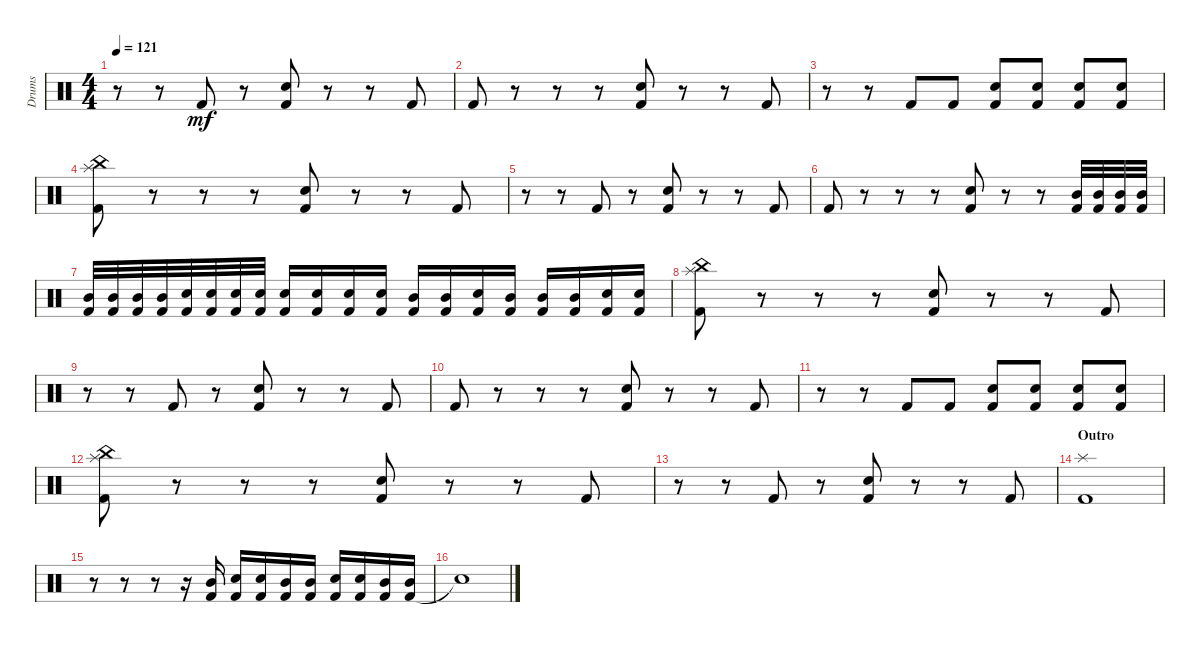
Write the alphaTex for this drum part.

\track ("Drums" "Drums") {instrument percussion}
\staff {score}
\articulation defaults
\ts (4 4)
\tempo 121
\clef neutral
\ks c
r.8{dy mf} r.8 "Kick (hit) 2".8 r.8 ("Kick (hit) 2" "Snare (hit) 2").8 r.8 r.8 "Kick (hit) 2".8 |
"Kick (hit) 2".8 r.8 r.8 r.8 ("Kick (hit) 2" "Snare (hit) 2").8 r.8 r.8 "Kick (hit) 2".8 |
r.8 r.8 "Kick (hit) 2".8 "Kick (hit) 2".8 ("Kick (hit) 2" "Snare (hit) 2").8 ("Kick (hit) 2" "Snare (hit) 2").8 ("Kick (hit) 2" "Snare (hit) 2").8 ("Kick (hit) 2" "Snare (hit) 2").8 |
("Kick (hit) 2" "Splash (hit)" "China (hit)").8 r.8 r.8 r.8 ("Kick (hit) 2" "Snare (hit) 2").8 r.8 r.8 "Kick (hit) 2".8 |
r.8 r.8 "Kick (hit) 2".8 r.8 ("Kick (hit) 2" "Snare (hit) 2").8 r.8 r.8 "Kick (hit) 2".8 |
"Kick (hit) 2".8 r.8 r.8 r.8 ("Kick (hit) 2" "Snare (hit) 2").8 r.8 r.8 ("Kick (hit) 2" "Mid Tom (hit)").32 ("Kick (hit) 2" "Mid Tom (hit)").32 ("Kick (hit) 2" "Mid Tom (hit)").32 ("Kick (hit) 2" "Mid Tom (hit)").32 |
("Kick (hit) 2" "Mid Tom (hit)").32 ("Kick (hit) 2" "Mid Tom (hit)").32 ("Kick (hit) 2" "Mid Tom (hit)").32 ("Kick (hit) 2" "Mid Tom (hit)").32 ("Kick (hit) 2" "Snare (hit) 2").32 ("Kick (hit) 2" "Snare (hit) 2").32 ("Kick (hit) 2" "Snare (hit) 2").32 ("Kick (hit) 2" "Snare (hit) 2").32 ("Kick (hit) 2" "Snare (hit) 2").16 ("Kick (hit) 2" "Snare (hit) 2").16 ("Kick (hit) 2" "Snare (hit) 2").16 ("Kick (hit) 2" "Snare (hit) 2").16 ("Kick (hit) 2" "Mid Tom (hit)").16 ("Kick (hit) 2" "Mid Tom (hit)").16 ("Kick (hit) 2" "Snare (hit) 2").16 ("Kick (hit) 2" "Mid Tom (hit)").16 ("Kick (hit) 2" "Mid Tom (hit)").16 ("Kick (hit) 2" "Mid Tom (hit)").16 ("Kick (hit) 2" "Snare (hit) 2").16 ("Kick (hit) 2" "Snare (hit) 2").16 |
("Kick (hit) 2" "Splash (hit)" "China (hit)").8 r.8 r.8 r.8 ("Kick (hit) 2" "Snare (hit) 2").8 r.8 r.8 "Kick (hit) 2".8 |
r.8 r.8 "Kick (hit) 2".8 r.8 ("Kick (hit) 2" "Snare (hit) 2").8 r.8 r.8 "Kick (hit) 2".8 |
"Kick (hit) 2".8 r.8 r.8 r.8 ("Kick (hit) 2" "Snare (hit) 2").8 r.8 r.8 "Kick (hit) 2".8 |
r.8 r.8 "Kick (hit) 2".8 "Kick (hit) 2".8 ("Kick (hit) 2" "Snare (hit) 2").8 ("Kick (hit) 2" "Snare (hit) 2").8 ("Kick (hit) 2" "Snare (hit) 2").8 ("Kick (hit) 2" "Snare (hit) 2").8 |
("Kick (hit) 2" "Splash (hit)" "China (hit)").8 r.8 r.8 r.8 ("Kick (hit) 2" "Snare (hit) 2").8 r.8 r.8 "Kick (hit) 2".8 |
r.8 r.8 "Kick (hit) 2".8 r.8 ("Kick (hit) 2" "Snare (hit) 2").8 r.8 r.8 "Kick (hit) 2".8 |
\section ("" "Outro")
("Kick (hit) 2" "Splash (hit)").1 |
r.8 r.8 r.8 r.16 ("Kick (hit) 2" "Mid Tom (hit)").16 ("Kick (hit) 2" "Snare (hit) 2").16 ("Kick (hit) 2" "Snare (hit) 2").16 ("Kick (hit) 2" "Mid Tom (hit)").16 ("Kick (hit) 2" "Mid Tom (hit)").16 ("Kick (hit) 2" "Snare (hit) 2").16 ("Kick (hit) 2" "Snare (hit) 2").16 ("Kick (hit) 2" "Mid Tom (hit)").16 ("Kick (hit) 2" "Mid Tom (hit)").16 |
"Snare (hit)"{t}.1
